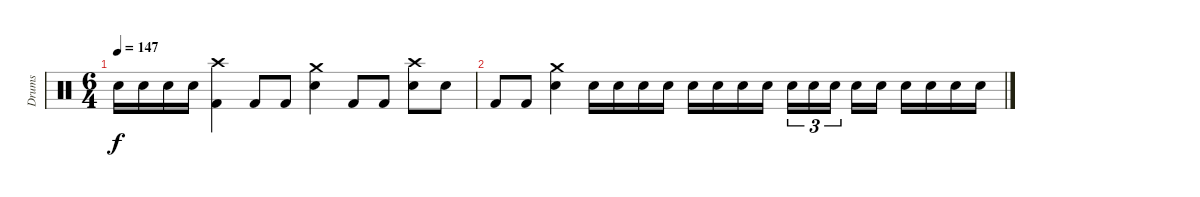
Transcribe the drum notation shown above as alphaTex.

\track ("Drums" "Drums") {instrument percussion}
\staff {score}
\articulation defaults
\ts (6 4)
\tempo 147
\clef neutral
\ks c "Snare (hit) 2".16{dy f volume 2} "Snare (hit) 2".16 "Snare (hit) 2".16 "Snare (hit) 2".16
("Crash high (hit)" "Kick (hit) 2").4 "Kick (hit) 2".8 "Kick (hit) 2".8 ("Crash medium (hit)" "Snare (hit) 2").4 "Kick (hit) 2".8 "Kick (hit) 2".8 ("Crash high (hit)" "Snare (hit) 2").8 "Snare (hit) 2".8 |
"Kick (hit) 2".8{volume 1} "Kick (hit) 2".8 ("Crash medium (hit)" "Snare (hit) 2").4 "Snare (hit) 2".16 "Snare (hit) 2".16 "Snare (hit) 2".16 "Snare (hit) 2".16 "Snare (hit) 2".16 "Snare (hit) 2".16 "Snare (hit) 2".16 "Snare (hit) 2".16 "Snare (hit) 2".16{tu (3 2)} "Snare (hit) 2".16{tu (3 2)} "Snare (hit) 2".16{tu (3 2)} "Snare (hit) 2".16 "Snare (hit) 2".16 "Snare (hit) 2".16 "Snare (hit) 2".16 "Snare (hit) 2".16 "Snare (hit) 2".16
